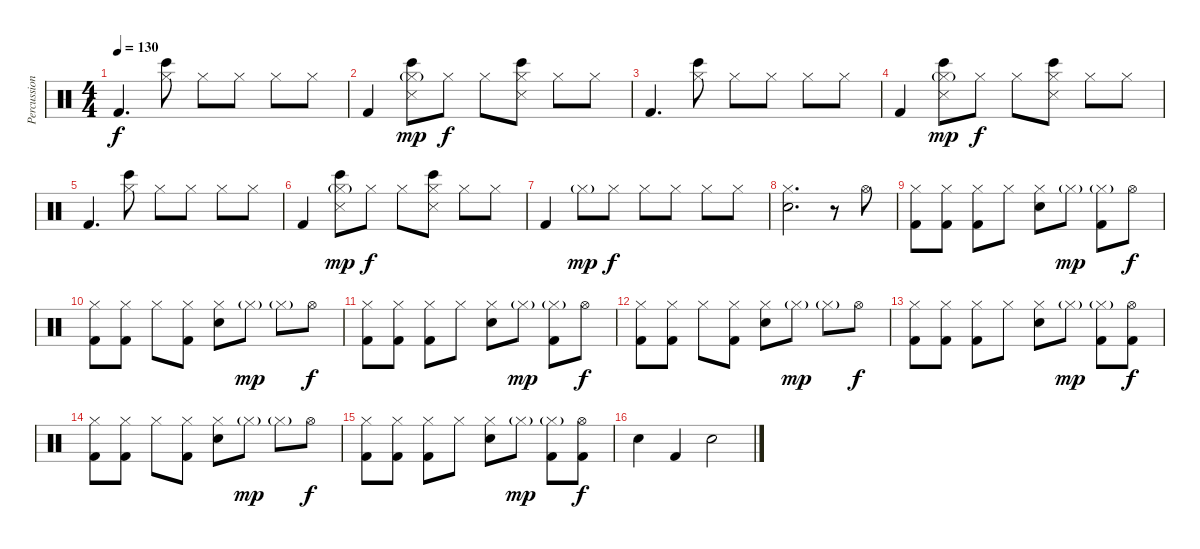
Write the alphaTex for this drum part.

\track ("Percussion" "Percussion") {instrument percussion}
\staff {score}
\articulation defaults
\ts (4 4)
\tempo 130
\clef neutral
\ks c "Kick (hit) 2".4{d dy f}
("Hi-Hat (closed)" "Bongo High (hit)").8 "Hi-Hat (closed)".8 "Hi-Hat (closed)".8 "Hi-Hat (closed)".8 "Hi-Hat (closed)".8 |
"Kick (hit) 2".4 ("Hi-Hat (closed)"{g} "Bongo High (hit)" "Snare (side stick) 3").8{dy mp} "Hi-Hat (closed)".8{dy f} "Hi-Hat (closed)".8 ("Hi-Hat (closed)" "Bongo High (hit)" "Snare (side stick) 3").8 "Hi-Hat (closed)".8 "Hi-Hat (closed)".8 |
"Kick (hit) 2".4{d} ("Hi-Hat (closed)" "Bongo High (hit)").8 "Hi-Hat (closed)".8 "Hi-Hat (closed)".8 "Hi-Hat (closed)".8 "Hi-Hat (closed)".8 |
"Kick (hit) 2".4 ("Hi-Hat (closed)"{g} "Bongo High (hit)" "Snare (side stick) 3").8{dy mp} "Hi-Hat (closed)".8{dy f} "Hi-Hat (closed)".8 ("Hi-Hat (closed)" "Bongo High (hit)" "Snare (side stick) 3").8 "Hi-Hat (closed)".8 "Hi-Hat (closed)".8 |
"Kick (hit) 2".4{d} ("Hi-Hat (closed)" "Bongo High (hit)").8 "Hi-Hat (closed)".8 "Hi-Hat (closed)".8 "Hi-Hat (closed)".8 "Hi-Hat (closed)".8 |
"Kick (hit) 2".4 ("Hi-Hat (closed)"{g} "Bongo High (hit)" "Snare (side stick) 3").8{dy mp} "Hi-Hat (closed)".8{dy f} "Hi-Hat (closed)".8 ("Hi-Hat (closed)" "Bongo High (hit)" "Snare (side stick) 3").8 "Hi-Hat (closed)".8 "Hi-Hat (closed)".8 |
"Kick (hit) 2".4 "Hi-Hat (closed)"{g}.8{dy mp} "Hi-Hat (closed)".8{dy f} "Hi-Hat (closed)".8 "Hi-Hat (closed)".8 "Hi-Hat (closed)".8 "Hi-Hat (closed)".8 |
("Hi-Hat (closed)" "Snare (hit) 2").2{d} r.8 "Hi-Hat (open)".8 |
("Hi-Hat (closed)" "Kick (hit) 2").8 ("Hi-Hat (closed)" "Kick (hit) 2").8 ("Hi-Hat (closed)" "Kick (hit) 2").8 "Hi-Hat (closed)".8 ("Hi-Hat (closed)" "Snare (hit) 2").8 "Hi-Hat (closed)"{g}.8{dy mp} ("Hi-Hat (closed)"{g} "Kick (hit) 2").8 "Hi-Hat (open)".8{dy f} |
("Hi-Hat (closed)" "Kick (hit) 2").8 ("Hi-Hat (closed)" "Kick (hit) 2").8 "Hi-Hat (closed)".8 ("Hi-Hat (closed)" "Kick (hit) 2").8 ("Hi-Hat (closed)" "Snare (hit) 2").8 "Hi-Hat (closed)"{g}.8{dy mp} "Hi-Hat (closed)"{g}.8 "Hi-Hat (open)".8{dy f} |
("Hi-Hat (closed)" "Kick (hit) 2").8 ("Hi-Hat (closed)" "Kick (hit) 2").8 ("Hi-Hat (closed)" "Kick (hit) 2").8 "Hi-Hat (closed)".8 ("Hi-Hat (closed)" "Snare (hit) 2").8 "Hi-Hat (closed)"{g}.8{dy mp} ("Hi-Hat (closed)"{g} "Kick (hit) 2").8 "Hi-Hat (open)".8{dy f} |
("Hi-Hat (closed)" "Kick (hit) 2").8 ("Hi-Hat (closed)" "Kick (hit) 2").8 "Hi-Hat (closed)".8 ("Hi-Hat (closed)" "Kick (hit) 2").8 ("Hi-Hat (closed)" "Snare (hit) 2").8 "Hi-Hat (closed)"{g}.8{dy mp} "Hi-Hat (closed)"{g}.8 "Hi-Hat (open)".8{dy f} |
("Hi-Hat (closed)" "Kick (hit) 2").8 ("Hi-Hat (closed)" "Kick (hit) 2").8 ("Hi-Hat (closed)" "Kick (hit) 2").8 "Hi-Hat (closed)".8 ("Hi-Hat (closed)" "Snare (hit) 2").8 "Hi-Hat (closed)"{g}.8{dy mp} ("Hi-Hat (closed)"{g} "Kick (hit) 2").8 ("Hi-Hat (open)" "Kick (hit) 2").8{dy f} |
("Hi-Hat (closed)" "Kick (hit) 2").8 ("Hi-Hat (closed)" "Kick (hit) 2").8 "Hi-Hat (closed)".8 ("Hi-Hat (closed)" "Kick (hit) 2").8 ("Hi-Hat (closed)" "Snare (hit) 2").8 "Hi-Hat (closed)"{g}.8{dy mp} "Hi-Hat (closed)"{g}.8 "Hi-Hat (open)".8{dy f} |
("Hi-Hat (closed)" "Kick (hit) 2").8 ("Hi-Hat (closed)" "Kick (hit) 2").8 ("Hi-Hat (closed)" "Kick (hit) 2").8 "Hi-Hat (closed)".8 ("Hi-Hat (closed)" "Snare (hit) 2").8 "Hi-Hat (closed)"{g}.8{dy mp} ("Hi-Hat (closed)"{g} "Kick (hit) 2").8 ("Hi-Hat (open)" "Kick (hit) 2").8{dy f} |
"Snare (hit) 2".4 "Kick (hit) 2".4 "Snare (hit) 2".2
